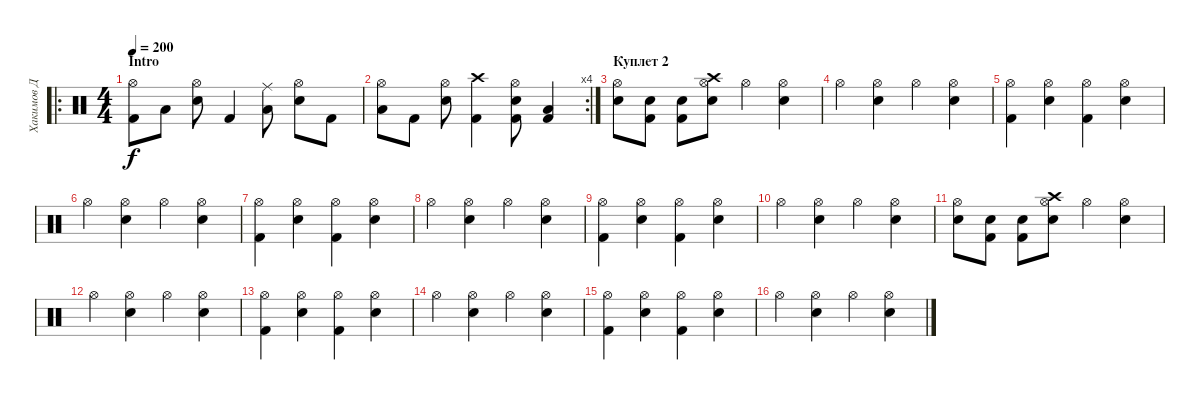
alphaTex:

\track ("Хакимов Д" "Хакимов Д") {instrument percussion}
\staff {score}
\articulation defaults
\ro
\ts (4 4)
\section ("" "Intro")
\tempo 200
\clef neutral
\ks c
("Hi-Hat (open)" "Kick (hit) 2").8{dy f} "Low Tom (hit)".8 ("Hi-Hat (open)" "Snare (hit) 2").8 "Kick (hit) 2".4 ("Ride (middle)" "Low Tom (hit)").8 ("Hi-Hat (open)" "Snare (hit) 2").8 "Kick (hit) 2".8 |
\rc 4
("Hi-Hat (open)" "Low Tom (hit)").8 "Kick (hit) 2".8 ("Hi-Hat (open)" "Snare (hit) 2").8 ("Crash high (hit)" "Kick (hit) 2").4 ("Snare (hit) 2" "Kick (hit) 2" "Hi-Hat (open)").8 ("Low Tom (hit)" "Kick (hit) 2").4 |
\section ("" "Куплет 2")
("Hi-Hat (open)" "Snare (hit) 2").8 ("Kick (hit) 2" "Snare (hit) 2").8 ("Kick (hit) 2" "Snare (hit) 2").8 ("Crash high (hit)" "Hi-Hat (open)" "Snare (hit) 2").8 "Hi-Hat (open)".4 ("Hi-Hat (open)" "Snare (hit) 2").4 |
"Hi-Hat (open)".4 ("Hi-Hat (open)" "Snare (hit) 2").4 "Hi-Hat (open)".4 ("Hi-Hat (open)" "Snare (hit) 2").4 |
("Hi-Hat (open)" "Kick (hit) 2").4 ("Hi-Hat (open)" "Snare (hit) 2").4 ("Hi-Hat (open)" "Kick (hit) 2").4 ("Hi-Hat (open)" "Snare (hit) 2").4 |
"Hi-Hat (open)".4 ("Hi-Hat (open)" "Snare (hit) 2").4 "Hi-Hat (open)".4 ("Hi-Hat (open)" "Snare (hit) 2").4 |
("Hi-Hat (open)" "Kick (hit) 2").4 ("Hi-Hat (open)" "Snare (hit) 2").4 ("Hi-Hat (open)" "Kick (hit) 2").4 ("Hi-Hat (open)" "Snare (hit) 2").4 |
"Hi-Hat (open)".4 ("Hi-Hat (open)" "Snare (hit) 2").4 "Hi-Hat (open)".4 ("Hi-Hat (open)" "Snare (hit) 2").4 |
("Hi-Hat (open)" "Kick (hit) 2").4 ("Hi-Hat (open)" "Snare (hit) 2").4 ("Hi-Hat (open)" "Kick (hit) 2").4 ("Hi-Hat (open)" "Snare (hit) 2").4 |
"Hi-Hat (open)".4 ("Hi-Hat (open)" "Snare (hit) 2").4 "Hi-Hat (open)".4 ("Hi-Hat (open)" "Snare (hit) 2").4 |
("Hi-Hat (open)" "Snare (hit) 2").8 ("Kick (hit) 2" "Snare (hit) 2").8 ("Kick (hit) 2" "Snare (hit) 2").8 ("Crash high (hit)" "Hi-Hat (open)" "Snare (hit) 2").8 "Hi-Hat (open)".4 ("Hi-Hat (open)" "Snare (hit) 2").4 |
"Hi-Hat (open)".4 ("Hi-Hat (open)" "Snare (hit) 2").4 "Hi-Hat (open)".4 ("Hi-Hat (open)" "Snare (hit) 2").4 |
("Hi-Hat (open)" "Kick (hit) 2").4 ("Hi-Hat (open)" "Snare (hit) 2").4 ("Hi-Hat (open)" "Kick (hit) 2").4 ("Hi-Hat (open)" "Snare (hit) 2").4 |
"Hi-Hat (open)".4 ("Hi-Hat (open)" "Snare (hit) 2").4 "Hi-Hat (open)".4 ("Hi-Hat (open)" "Snare (hit) 2").4 |
("Hi-Hat (open)" "Kick (hit) 2").4 ("Hi-Hat (open)" "Snare (hit) 2").4 ("Hi-Hat (open)" "Kick (hit) 2").4 ("Hi-Hat (open)" "Snare (hit) 2").4 |
"Hi-Hat (open)".4 ("Hi-Hat (open)" "Snare (hit) 2").4 "Hi-Hat (open)".4 ("Hi-Hat (open)" "Snare (hit) 2").4
